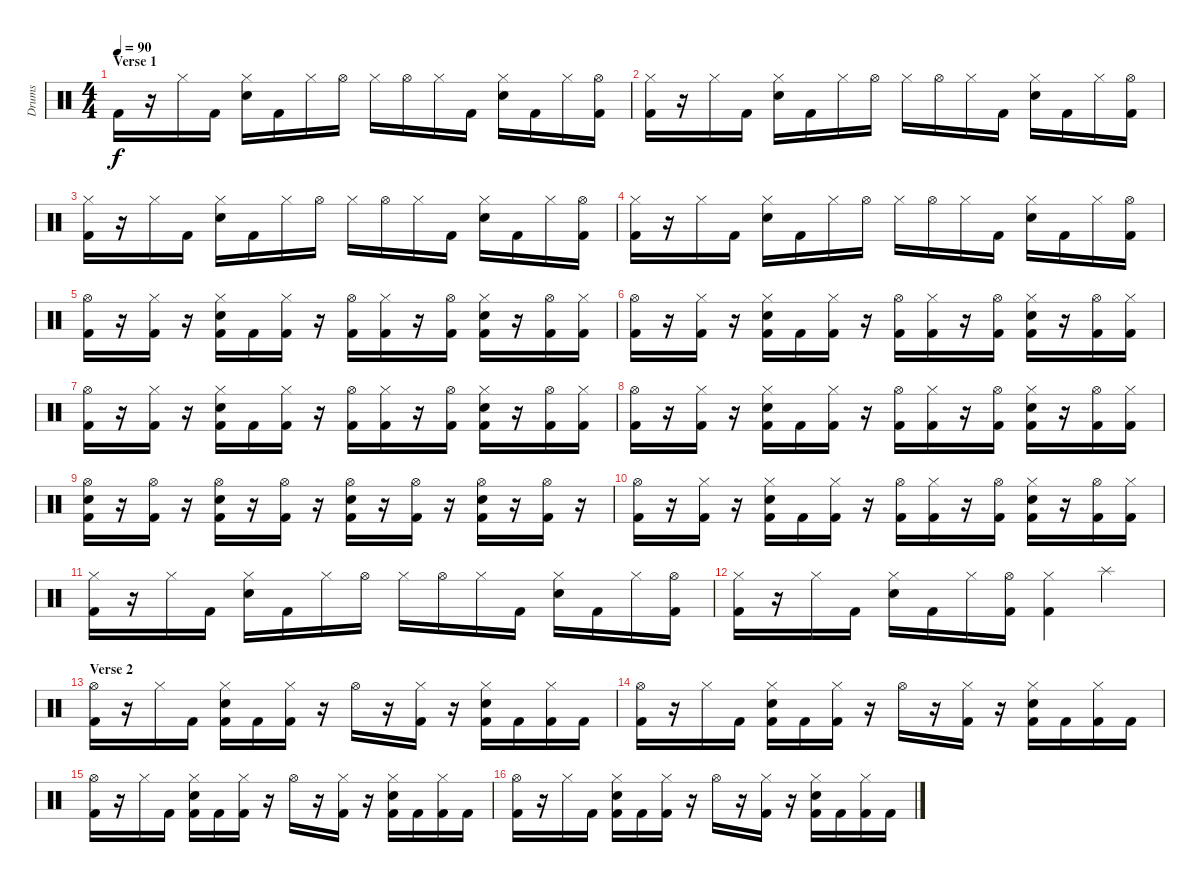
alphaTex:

\track ("Drums" "Drums") {instrument percussion}
\staff {score}
\articulation defaults
\ts (4 4)
\section ("" "Verse 1")
\tempo 90
\clef neutral
\ks c "Kick (hit) 2".16{dy f}
r.16 "Hi-Hat (closed)".16 "Kick (hit) 2".16 ("Hi-Hat (closed)" "Snare (hit) 2").16 "Kick (hit) 2".16 "Hi-Hat (closed)".16 "Hi-Hat (open)".16 "Hi-Hat (closed)".16 "Hi-Hat (open)".16 "Hi-Hat (closed)".16 "Kick (hit) 2".16 ("Hi-Hat (closed)" "Snare (hit) 2").16 "Kick (hit) 2".16 "Hi-Hat (closed)".16 ("Hi-Hat (open)" "Kick (hit) 2").16 |
("Hi-Hat (closed)" "Kick (hit) 2").16 r.16 "Hi-Hat (closed)".16 "Kick (hit) 2".16 ("Hi-Hat (closed)" "Snare (hit) 2").16 "Kick (hit) 2".16 "Hi-Hat (closed)".16 "Hi-Hat (open)".16 "Hi-Hat (closed)".16 "Hi-Hat (open)".16 "Hi-Hat (closed)".16 "Kick (hit) 2".16 ("Hi-Hat (closed)" "Snare (hit) 2").16 "Kick (hit) 2".16 "Hi-Hat (closed)".16 ("Hi-Hat (open)" "Kick (hit) 2").16 |
("Hi-Hat (closed)" "Kick (hit) 2").16 r.16 "Hi-Hat (closed)".16 "Kick (hit) 2".16 ("Hi-Hat (closed)" "Snare (hit) 2").16 "Kick (hit) 2".16 "Hi-Hat (closed)".16 "Hi-Hat (open)".16 "Hi-Hat (closed)".16 "Hi-Hat (open)".16 "Hi-Hat (closed)".16 "Kick (hit) 2".16 ("Hi-Hat (closed)" "Snare (hit) 2").16 "Kick (hit) 2".16 "Hi-Hat (closed)".16 ("Hi-Hat (open)" "Kick (hit) 2").16 |
("Hi-Hat (closed)" "Kick (hit) 2").16 r.16 "Hi-Hat (closed)".16 "Kick (hit) 2".16 ("Hi-Hat (closed)" "Snare (hit) 2").16 "Kick (hit) 2".16 "Hi-Hat (closed)".16 "Hi-Hat (open)".16 "Hi-Hat (closed)".16 "Hi-Hat (open)".16 "Hi-Hat (closed)".16 "Kick (hit) 2".16 ("Hi-Hat (closed)" "Snare (hit) 2").16 "Kick (hit) 2".16 "Hi-Hat (closed)".16 ("Hi-Hat (open)" "Kick (hit) 2").16 |
("Hi-Hat (open)" "Kick (hit) 2").16 r.16 ("Hi-Hat (closed)" "Kick (hit) 2").16 r.16 ("Hi-Hat (closed)" "Snare (hit) 2" "Kick (hit) 2").16 "Kick (hit) 2".16 ("Hi-Hat (closed)" "Kick (hit) 2").16 r.16 ("Hi-Hat (open)" "Kick (hit) 2").16 ("Hi-Hat (closed)" "Kick (hit) 2").16 r.16 ("Hi-Hat (open)" "Kick (hit) 2").16 ("Hi-Hat (closed)" "Snare (hit) 2" "Kick (hit) 2").16 r.16 ("Hi-Hat (open)" "Kick (hit) 2").16 ("Hi-Hat (closed)" "Kick (hit) 2").16 |
("Hi-Hat (open)" "Kick (hit) 2").16 r.16 ("Hi-Hat (closed)" "Kick (hit) 2").16 r.16 ("Hi-Hat (closed)" "Snare (hit) 2" "Kick (hit) 2").16 "Kick (hit) 2".16 ("Hi-Hat (closed)" "Kick (hit) 2").16 r.16 ("Hi-Hat (open)" "Kick (hit) 2").16 ("Hi-Hat (closed)" "Kick (hit) 2").16 r.16 ("Hi-Hat (open)" "Kick (hit) 2").16 ("Hi-Hat (closed)" "Snare (hit) 2" "Kick (hit) 2").16 r.16 ("Hi-Hat (open)" "Kick (hit) 2").16 ("Hi-Hat (closed)" "Kick (hit) 2").16 |
("Hi-Hat (open)" "Kick (hit) 2").16 r.16 ("Hi-Hat (closed)" "Kick (hit) 2").16 r.16 ("Hi-Hat (closed)" "Snare (hit) 2" "Kick (hit) 2").16 "Kick (hit) 2".16 ("Hi-Hat (closed)" "Kick (hit) 2").16 r.16 ("Hi-Hat (open)" "Kick (hit) 2").16 ("Hi-Hat (closed)" "Kick (hit) 2").16 r.16 ("Hi-Hat (open)" "Kick (hit) 2").16 ("Hi-Hat (closed)" "Snare (hit) 2" "Kick (hit) 2").16 r.16 ("Hi-Hat (open)" "Kick (hit) 2").16 ("Hi-Hat (closed)" "Kick (hit) 2").16 |
("Hi-Hat (open)" "Kick (hit) 2").16 r.16 ("Hi-Hat (closed)" "Kick (hit) 2").16 r.16 ("Hi-Hat (closed)" "Snare (hit) 2" "Kick (hit) 2").16 "Kick (hit) 2".16 ("Hi-Hat (closed)" "Kick (hit) 2").16 r.16 ("Hi-Hat (open)" "Kick (hit) 2").16 ("Hi-Hat (closed)" "Kick (hit) 2").16 r.16 ("Hi-Hat (open)" "Kick (hit) 2").16 ("Hi-Hat (closed)" "Snare (hit) 2" "Kick (hit) 2").16 r.16 ("Hi-Hat (open)" "Kick (hit) 2").16 ("Hi-Hat (closed)" "Kick (hit) 2").16 |
("Hi-Hat (open)" "Snare (hit) 2" "Kick (hit) 2").16 r.16 ("Hi-Hat (open)" "Kick (hit) 2").16 r.16 ("Hi-Hat (open)" "Snare (hit) 2" "Kick (hit) 2").16 r.16 ("Hi-Hat (open)" "Kick (hit) 2").16 r.16 ("Hi-Hat (open)" "Snare (hit) 2" "Kick (hit) 2").16 r.16 ("Hi-Hat (open)" "Kick (hit) 2").16 r.16 ("Hi-Hat (open)" "Snare (hit) 2" "Kick (hit) 2").16 r.16 ("Hi-Hat (open)" "Kick (hit) 2").16 r.16 |
("Hi-Hat (open)" "Kick (hit) 2").16 r.16 ("Hi-Hat (closed)" "Kick (hit) 2").16 r.16 ("Hi-Hat (closed)" "Snare (hit) 2" "Kick (hit) 2").16 "Kick (hit) 2".16 ("Hi-Hat (closed)" "Kick (hit) 2").16 r.16 ("Hi-Hat (open)" "Kick (hit) 2").16 ("Hi-Hat (closed)" "Kick (hit) 2").16 r.16 ("Hi-Hat (open)" "Kick (hit) 2").16 ("Hi-Hat (closed)" "Snare (hit) 2" "Kick (hit) 2").16 r.16 ("Hi-Hat (open)" "Kick (hit) 2").16 ("Hi-Hat (closed)" "Kick (hit) 2").16 |
("Hi-Hat (closed)" "Kick (hit) 2").16 r.16 "Hi-Hat (closed)".16 "Kick (hit) 2".16 ("Hi-Hat (closed)" "Snare (hit) 2").16 "Kick (hit) 2".16 "Hi-Hat (closed)".16 "Hi-Hat (open)".16 "Hi-Hat (closed)".16 "Hi-Hat (open)".16 "Hi-Hat (closed)".16 "Kick (hit) 2".16 ("Hi-Hat (closed)" "Snare (hit) 2").16 "Kick (hit) 2".16 "Hi-Hat (closed)".16 ("Hi-Hat (open)" "Kick (hit) 2").16 |
("Hi-Hat (closed)" "Kick (hit) 2").16 r.16 "Hi-Hat (closed)".16 "Kick (hit) 2".16 ("Hi-Hat (closed)" "Snare (hit) 2").16 "Kick (hit) 2".16 "Hi-Hat (closed)".16 ("Hi-Hat (open)" "Kick (hit) 2").16 ("Hi-Hat (closed)" "Kick (hit) 2").4 "Splash (hit)".4 |
\section ("" "Verse 2")
("Hi-Hat (open)" "Kick (hit) 2").16 r.16 "Hi-Hat (closed)".16 "Kick (hit) 2".16 ("Hi-Hat (closed)" "Snare (hit) 2" "Kick (hit) 2").16 "Kick (hit) 2".16 ("Hi-Hat (closed)" "Kick (hit) 2").16 r.16 "Hi-Hat (open)".16 r.16 ("Hi-Hat (closed)" "Kick (hit) 2").16 r.16 ("Hi-Hat (closed)" "Snare (hit) 2" "Kick (hit) 2").16 "Kick (hit) 2".16 ("Hi-Hat (closed)" "Kick (hit) 2").16 "Kick (hit) 2".16 |
("Hi-Hat (open)" "Kick (hit) 2").16 r.16 "Hi-Hat (closed)".16 "Kick (hit) 2".16 ("Hi-Hat (closed)" "Snare (hit) 2" "Kick (hit) 2").16 "Kick (hit) 2".16 ("Hi-Hat (closed)" "Kick (hit) 2").16 r.16 "Hi-Hat (open)".16 r.16 ("Hi-Hat (closed)" "Kick (hit) 2").16 r.16 ("Hi-Hat (closed)" "Snare (hit) 2" "Kick (hit) 2").16 "Kick (hit) 2".16 ("Hi-Hat (closed)" "Kick (hit) 2").16 "Kick (hit) 2".16 |
("Hi-Hat (open)" "Kick (hit) 2").16 r.16 "Hi-Hat (closed)".16 "Kick (hit) 2".16 ("Hi-Hat (closed)" "Snare (hit) 2" "Kick (hit) 2").16 "Kick (hit) 2".16 ("Hi-Hat (closed)" "Kick (hit) 2").16 r.16 "Hi-Hat (open)".16 r.16 ("Hi-Hat (closed)" "Kick (hit) 2").16 r.16 ("Hi-Hat (closed)" "Snare (hit) 2" "Kick (hit) 2").16 "Kick (hit) 2".16 ("Hi-Hat (closed)" "Kick (hit) 2").16 "Kick (hit) 2".16 |
("Hi-Hat (open)" "Kick (hit) 2").16 r.16 "Hi-Hat (closed)".16 "Kick (hit) 2".16 ("Hi-Hat (closed)" "Snare (hit) 2" "Kick (hit) 2").16 "Kick (hit) 2".16 ("Hi-Hat (closed)" "Kick (hit) 2").16 r.16 "Hi-Hat (open)".16 r.16 ("Hi-Hat (closed)" "Kick (hit) 2").16 r.16 ("Hi-Hat (closed)" "Snare (hit) 2" "Kick (hit) 2").16 "Kick (hit) 2".16 ("Hi-Hat (closed)" "Kick (hit) 2").16 "Kick (hit) 2".16
